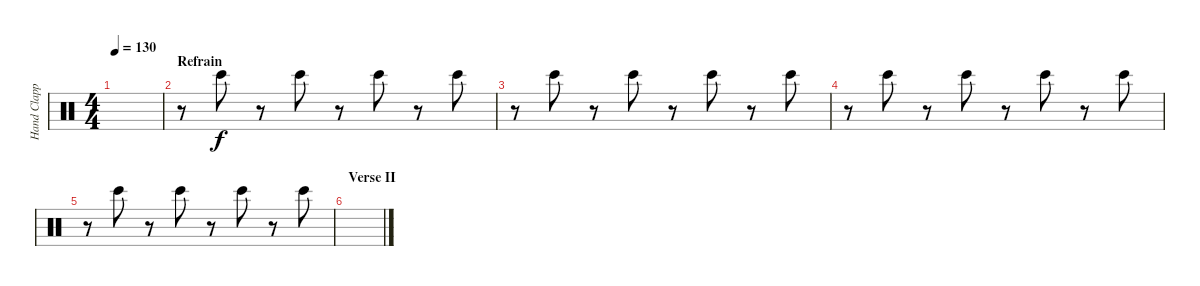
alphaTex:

\track ("Hand Clapping" "Hand Clapp") {instrument percussion}
\staff {score}
\articulation defaults
\ts (4 4)
\tempo 130
\clef neutral
\ks c
|
\section ("" "Refrain")
r.8 "Bongo High (hit)".8 r.8 "Bongo High (hit)".8 r.8 "Bongo High (hit)".8 r.8 "Bongo High (hit)".8 |
r.8 "Bongo High (hit)".8 r.8 "Bongo High (hit)".8 r.8 "Bongo High (hit)".8 r.8 "Bongo High (hit)".8 |
r.8 "Bongo High (hit)".8 r.8 "Bongo High (hit)".8 r.8 "Bongo High (hit)".8 r.8 "Bongo High (hit)".8 |
r.8 "Bongo High (hit)".8 r.8 "Bongo High (hit)".8 r.8 "Bongo High (hit)".8 r.8 "Bongo High (hit)".8 |
\section ("" "Verse II")
